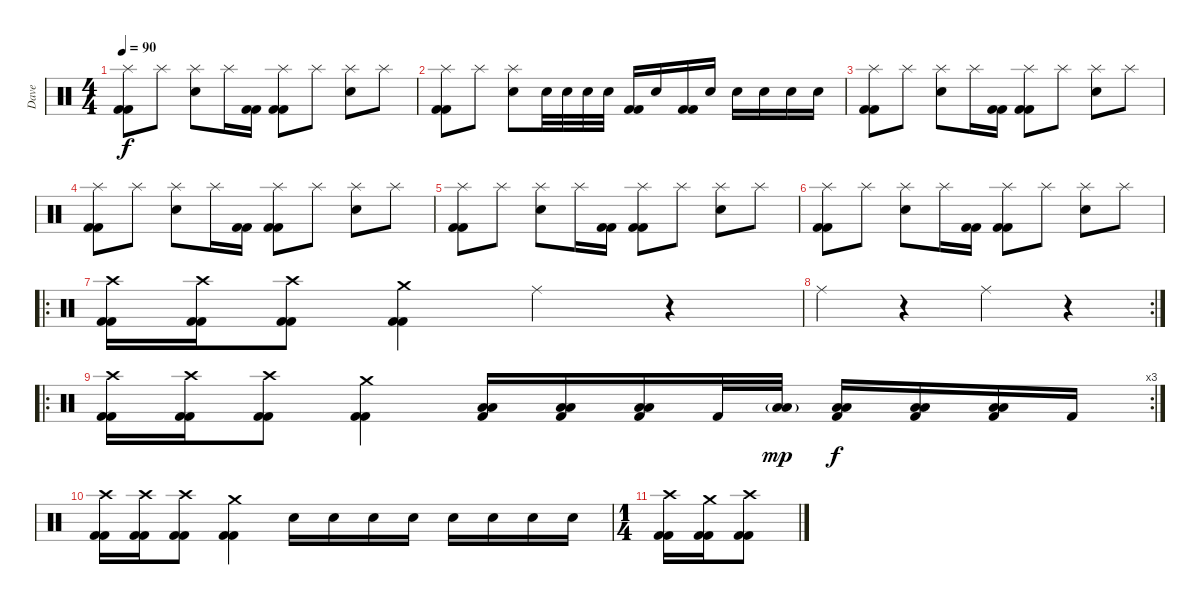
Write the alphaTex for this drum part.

\track ("Dave" "Dave") {instrument percussion}
\staff {score}
\articulation defaults
\ts (4 4)
\tempo 90
\clef neutral
\ks c
("Splash (hit)" "Kick (hit) 2" "Kick (hit) 2").8{dy f} "Splash (hit)".8 ("Splash (hit)" "Electric Snare (hit)").8 "Splash (hit)".16 ("Kick (hit) 2" "Kick (hit) 2").16 ("Splash (hit)" "Kick (hit) 2" "Kick (hit) 2").8 "Splash (hit)".8 ("Splash (hit)" "Electric Snare (hit)").8 "Splash (hit)".8 |
("Splash (hit)" "Kick (hit) 2" "Kick (hit) 2").8 "Splash (hit)".8 ("Splash (hit)" "Electric Snare (hit)").8 "Electric Snare (hit)".32 "Electric Snare (hit)".32 "Electric Snare (hit)".32 "Electric Snare (hit)".32 ("Kick (hit) 2" "Kick (hit) 2").16 "Electric Snare (hit)".16 ("Kick (hit) 2" "Kick (hit) 2").16 "Electric Snare (hit)".16 "Electric Snare (hit)".16 "Electric Snare (hit)".16 "Electric Snare (hit)".16 "Electric Snare (hit)".16 |
("Splash (hit)" "Kick (hit) 2" "Kick (hit) 2").8 "Splash (hit)".8 ("Splash (hit)" "Electric Snare (hit)").8 "Splash (hit)".16 ("Kick (hit) 2" "Kick (hit) 2").16 ("Splash (hit)" "Kick (hit) 2" "Kick (hit) 2").8 "Splash (hit)".8 ("Splash (hit)" "Electric Snare (hit)").8 "Splash (hit)".8 |
("Splash (hit)" "Kick (hit) 2" "Kick (hit) 2").8 "Splash (hit)".8 ("Splash (hit)" "Electric Snare (hit)").8 "Splash (hit)".16 ("Kick (hit) 2" "Kick (hit) 2").16 ("Splash (hit)" "Kick (hit) 2" "Kick (hit) 2").8 "Splash (hit)".8 ("Splash (hit)" "Electric Snare (hit)").8 "Splash (hit)".8 |
("Splash (hit)" "Kick (hit) 2" "Kick (hit) 2").8 "Splash (hit)".8 ("Splash (hit)" "Electric Snare (hit)").8 "Splash (hit)".16 ("Kick (hit) 2" "Kick (hit) 2").16 ("Splash (hit)" "Kick (hit) 2" "Kick (hit) 2").8 "Splash (hit)".8 ("Splash (hit)" "Electric Snare (hit)").8 "Splash (hit)".8 |
("Splash (hit)" "Kick (hit) 2" "Kick (hit) 2").8 "Splash (hit)".8 ("Splash (hit)" "Electric Snare (hit)").8 "Splash (hit)".16 ("Kick (hit) 2" "Kick (hit) 2").16 ("Splash (hit)" "Kick (hit) 2" "Kick (hit) 2").8 "Splash (hit)".8 ("Splash (hit)" "Electric Snare (hit)").8 "Splash (hit)".8 |
\ro
("Crash high (hit)" "Kick (hit) 2" "Kick (hit) 2").16 ("Crash high (hit)" "Kick (hit) 2" "Kick (hit) 2").16 ("Crash high (hit)" "Kick (hit) 2" "Kick (hit) 2").8 ("Crash medium (hit)" "Kick (hit) 2" "Kick (hit) 2").4 "Ride (middle)".4 r.4 |
\rc 2 "Ride (middle)".4
r.4 "Ride (middle)".4 r.4 |
\ro
\rc 3
("Crash high (hit)" "Kick (hit) 2" "Kick (hit) 2").16 ("Crash high (hit)" "Kick (hit) 2" "Kick (hit) 2").16 ("Crash high (hit)" "Kick (hit) 2" "Kick (hit) 2").8 ("Crash medium (hit)" "Kick (hit) 2" "Kick (hit) 2").4 ("Low Floor Tom (hit)" "Low Floor Tom (hit)" "Kick (hit) 2").16 ("Low Floor Tom (hit)" "Low Floor Tom (hit)" "Kick (hit) 2").16 ("Low Floor Tom (hit)" "Low Floor Tom (hit)" "Kick (hit) 2").16 "Kick (hit) 2".32 ("Low Tom (hit)"{g} "Low Tom (hit)"{g}).32{dy mp} ("Low Tom (hit)" "Low Tom (hit)" "Kick (hit) 2").16{dy f} ("Low Tom (hit)" "Low Tom (hit)" "Kick (hit) 2").16 ("Low Tom (hit)" "Low Tom (hit)" "Kick (hit) 2").16 "Kick (hit) 2".16 |
("Crash high (hit)" "Kick (hit) 2" "Kick (hit) 2").16 ("Crash high (hit)" "Kick (hit) 2" "Kick (hit) 2").16 ("Crash high (hit)" "Kick (hit) 2" "Kick (hit) 2").8 ("Crash medium (hit)" "Kick (hit) 2" "Kick (hit) 2").4 "Electric Snare (hit)".16 "Electric Snare (hit)".16 "Electric Snare (hit)".16 "Electric Snare (hit)".16 "Electric Snare (hit)".16 "Electric Snare (hit)".16 "Electric Snare (hit)".16 "Electric Snare (hit)".16 |
\ts (1 4)
("Crash high (hit)" "Kick (hit) 2" "Kick (hit) 2").16 ("Crash medium (hit)" "Kick (hit) 2" "Kick (hit) 2").16 ("Crash high (hit)" "Kick (hit) 2" "Kick (hit) 2").8
